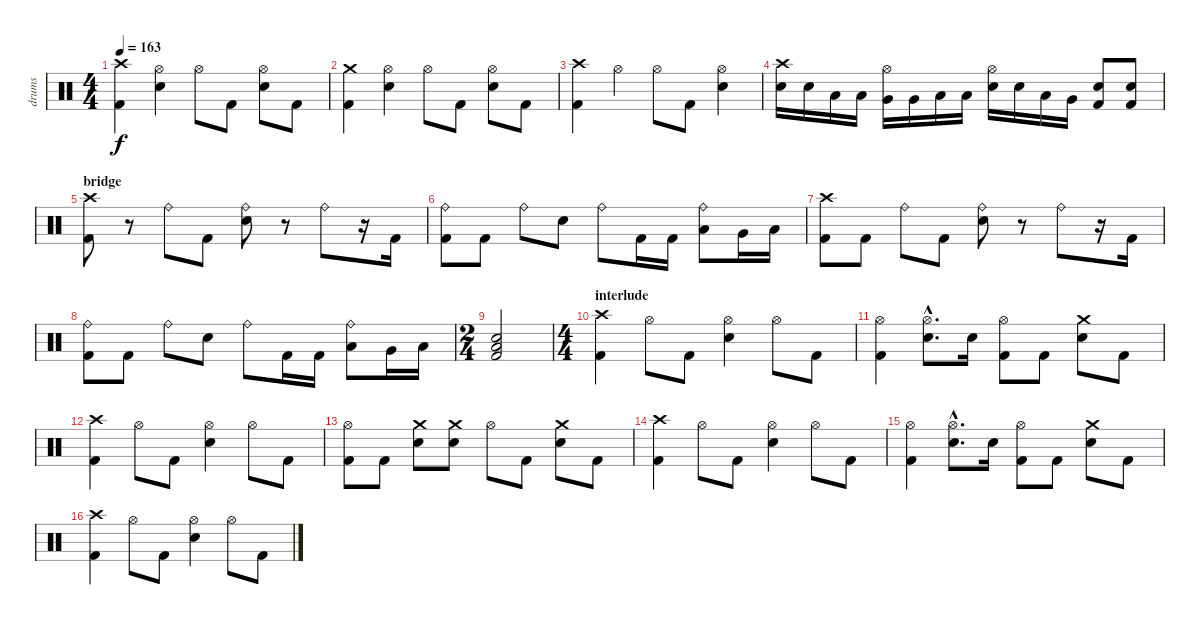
\track ("drums" "drums") {instrument percussion}
\staff {score}
\articulation defaults
\ts (4 4)
\tempo 163
\clef neutral
\ks c
("Crash high (hit)" "Kick (hit) 2").4{dy f} ("Hi-Hat (open)" "Electric Snare (hit)").4 "Hi-Hat (open)".8 "Kick (hit) 2".8 ("Hi-Hat (open)" "Electric Snare (hit)").8 "Kick (hit) 2".8 |
("Crash medium (hit)" "Kick (hit) 2").4 ("Hi-Hat (open)" "Electric Snare (hit)").4 "Hi-Hat (open)".8 "Kick (hit) 2".8 ("Hi-Hat (open)" "Electric Snare (hit)").8 "Kick (hit) 2".8 |
("Crash high (hit)" "Kick (hit) 2").4 "Hi-Hat (open)".4 "Hi-Hat (open)".8 "Kick (hit) 2".8 ("Hi-Hat (open)" "Electric Snare (hit)").4 |
("Crash high (hit)" "Electric Snare (hit)").16 "Electric Snare (hit)".16 "Low Tom (hit)".16 "Low Tom (hit)".16 ("Hi-Hat (open)" "Very Low Tom (hit)").16 "Very Low Tom (hit)".16 "Low Floor Tom (hit)".16 "Low Floor Tom (hit)".16 ("Hi-Hat (open)" "Electric Snare (hit)").16 "Electric Snare (hit)".16 "Low Tom (hit)".16 "Very Low Tom (hit)".16 ("Electric Snare (hit)" "Kick (hit) 2").8 ("Electric Snare (hit)" "Kick (hit) 2").8 |
\section ("" "bridge")
("Crash high (hit)" "Kick (hit) 2").8 r.8 "Ride (bell)".8 "Kick (hit) 2".8 ("Ride (bell)" "Electric Snare (hit)").8 r.8 "Ride (bell)".8 r.16 "Kick (hit) 2".16 |
("Ride (bell)" "Kick (hit) 2").8 "Kick (hit) 2".8 "Ride (bell)".8 "Electric Snare (hit)".8 "Ride (bell)".8 "Kick (hit) 2".16 "Kick (hit) 2".16 ("Ride (bell)" "Low Tom (hit)").8 "Very Low Tom (hit)".16 "Low Floor Tom (hit)".16 |
("Crash high (hit)" "Kick (hit) 2").8 "Kick (hit) 2".8 "Ride (bell)".8 "Kick (hit) 2".8 ("Ride (bell)" "Electric Snare (hit)").8 r.8 "Ride (bell)".8 r.16 "Kick (hit) 2".16 |
("Ride (bell)" "Kick (hit) 2").8 "Kick (hit) 2".8 "Ride (bell)".8 "Electric Snare (hit)".8 "Ride (bell)".8 "Kick (hit) 2".16 "Kick (hit) 2".16 ("Ride (bell)" "Low Tom (hit)").8 "Very Low Tom (hit)".16 "Low Floor Tom (hit)".16 |
\ts (2 4)
("Low Floor Tom (hit)" "Electric Snare (hit)" "Kick (hit) 2").2 |
\ts (4 4)
\section ("" "interlude")
("Crash high (hit)" "Kick (hit) 2").4 "Hi-Hat (open)".8 "Kick (hit) 2".8 ("Hi-Hat (open)" "Electric Snare (hit)").4 "Hi-Hat (open)".8 "Kick (hit) 2".8 |
("Hi-Hat (open)" "Kick (hit) 2").4 ("Hi-Hat (open)"{hac} "Electric Snare (hit)"{hac}).8{d} "Electric Snare (hit)".16 ("Hi-Hat (open)" "Kick (hit) 2").8 "Kick (hit) 2".8 ("Crash medium (hit)" "Electric Snare (hit)").8 "Kick (hit) 2".8 |
("Crash high (hit)" "Kick (hit) 2").4 "Hi-Hat (open)".8 "Kick (hit) 2".8 ("Hi-Hat (open)" "Electric Snare (hit)").4 "Hi-Hat (open)".8 "Kick (hit) 2".8 |
("Hi-Hat (open)" "Kick (hit) 2").8 "Kick (hit) 2".8 ("Crash medium (hit)" "Electric Snare (hit)").8 ("Crash medium (hit)" "Electric Snare (hit)").8 "Hi-Hat (open)".8 "Kick (hit) 2".8 ("Crash medium (hit)" "Electric Snare (hit)").8 "Kick (hit) 2".8 |
("Crash high (hit)" "Kick (hit) 2").4 "Hi-Hat (open)".8 "Kick (hit) 2".8 ("Hi-Hat (open)" "Electric Snare (hit)").4 "Hi-Hat (open)".8 "Kick (hit) 2".8 |
("Hi-Hat (open)" "Kick (hit) 2").4 ("Hi-Hat (open)"{hac} "Electric Snare (hit)"{hac}).8{d} "Electric Snare (hit)".16 ("Hi-Hat (open)" "Kick (hit) 2").8 "Kick (hit) 2".8 ("Crash medium (hit)" "Electric Snare (hit)").8 "Kick (hit) 2".8 |
("Crash high (hit)" "Kick (hit) 2").4 "Hi-Hat (open)".8 "Kick (hit) 2".8 ("Hi-Hat (open)" "Electric Snare (hit)").4 "Hi-Hat (open)".8 "Kick (hit) 2".8
